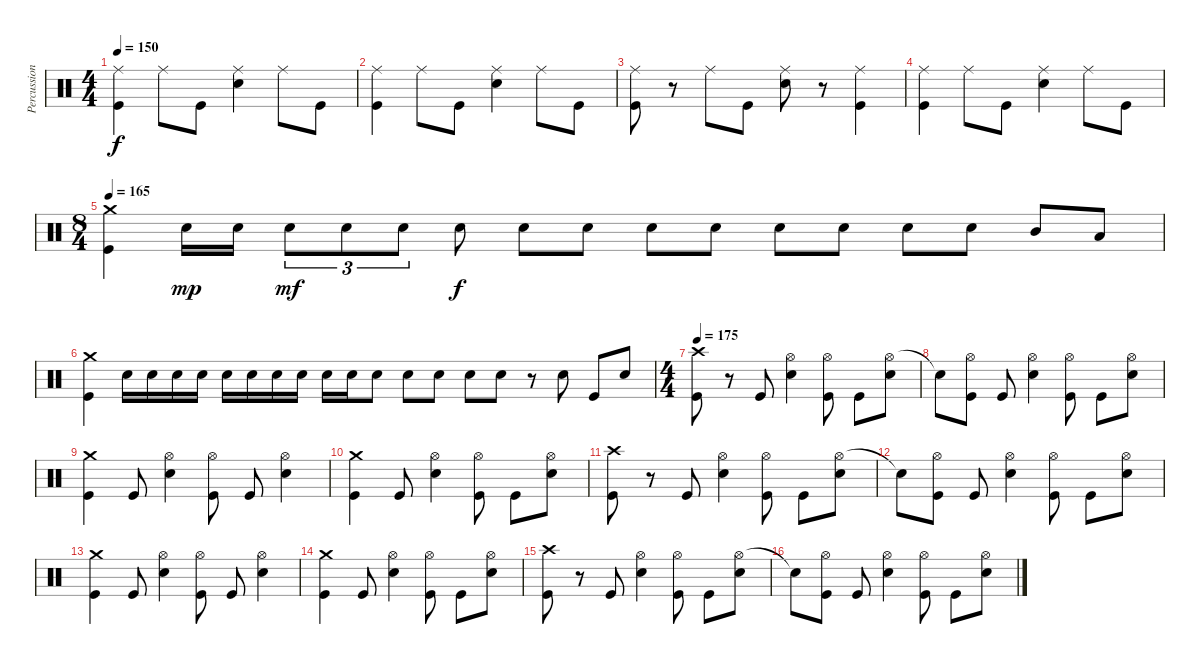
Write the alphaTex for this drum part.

\track ("Percussion" "Percussion") {instrument percussion}
\staff {score}
\articulation defaults
\ts (4 4)
\tempo 150
\clef neutral
\ks c
("Ride (middle)" "Kick (hit)").4{dy f} "Ride (middle)".8 "Kick (hit)".8 ("Ride (middle)" "Snare (hit) 2").4 "Ride (middle)".8 "Kick (hit)".8 |
("Ride (middle)" "Kick (hit)").4 "Ride (middle)".8 "Kick (hit)".8 ("Ride (middle)" "Snare (hit) 2").4 "Ride (middle)".8 "Kick (hit)".8 |
("Ride (middle)" "Kick (hit)").8 r.8 "Ride (middle)".8 "Kick (hit)".8 ("Ride (middle)" "Snare (hit) 2").8 r.8 ("Ride (middle)" "Kick (hit)").4 |
("Ride (middle)" "Kick (hit)").4 "Ride (middle)".8 "Kick (hit)".8 ("Ride (middle)" "Snare (hit) 2").4 "Ride (middle)".8 "Kick (hit)".8 |
\ts (8 4)
\tempo 165
("Crash medium (hit)" "Kick (hit)").4 "Snare (hit) 2".16{dy mp} "Snare (hit) 2".16 "Snare (hit) 2".8{tu (3 2) dy mf} "Snare (hit) 2".8{tu (3 2)} "Snare (hit) 2".8{tu (3 2)} "Snare (hit) 2".8{dy f} "Snare (hit) 2".8 "Snare (hit) 2".8 "Snare (hit) 2".8 "Snare (hit) 2".8 "Snare (hit) 2".8 "Snare (hit) 2".8 "Snare (hit) 2".8 "Snare (hit) 2".8 "Mid Tom (hit)".8 "Low Floor Tom (hit)".8 |
("Crash medium (hit)" "Kick (hit)").4 "Snare (hit) 2".16 "Snare (hit) 2".16 "Snare (hit) 2".16 "Snare (hit) 2".16 "Snare (hit) 2".16 "Snare (hit) 2".16 "Snare (hit) 2".16 "Snare (hit) 2".16 "Snare (hit) 2".16 "Snare (hit) 2".16 "Snare (hit) 2".8 "Snare (hit) 2".8 "Snare (hit) 2".8 "Snare (hit) 2".8 "Snare (hit) 2".8 r.8 "Snare (hit) 2".8 "Kick (hit)".8 "Snare (hit) 2".8 |
\ts (4 4)
\tempo 175
("Crash high (hit)" "Kick (hit)").8 r.8 "Kick (hit)".8 ("Hi-Hat (open)" "Snare (hit) 2").4 ("Hi-Hat (open)" "Kick (hit)").8 "Kick (hit)".8 ("Hi-Hat (open)" "Snare (hit) 2").8 |
"Snare (hit)"{t}.8 ("Hi-Hat (open)" "Kick (hit)").8 "Kick (hit)".8 ("Hi-Hat (open)" "Snare (hit) 2").4 ("Hi-Hat (open)" "Kick (hit)").8 "Kick (hit)".8 ("Hi-Hat (open)" "Snare (hit) 2").8 |
("Crash medium (hit)" "Kick (hit)").4 "Kick (hit)".8 ("Hi-Hat (open)" "Snare (hit) 2").4 ("Hi-Hat (open)" "Kick (hit)").8 "Kick (hit)".8 ("Hi-Hat (open)" "Snare (hit) 2").4 |
("Crash medium (hit)" "Kick (hit)").4 "Kick (hit)".8 ("Hi-Hat (open)" "Snare (hit) 2").4 ("Hi-Hat (open)" "Kick (hit)").8 "Kick (hit)".8 ("Hi-Hat (open)" "Snare (hit) 2").8 |
("Crash high (hit)" "Kick (hit)").8 r.8 "Kick (hit)".8 ("Hi-Hat (open)" "Snare (hit) 2").4 ("Hi-Hat (open)" "Kick (hit)").8 "Kick (hit)".8 ("Hi-Hat (open)" "Snare (hit) 2").8 |
"Snare (hit)"{t}.8 ("Hi-Hat (open)" "Kick (hit)").8 "Kick (hit)".8 ("Hi-Hat (open)" "Snare (hit) 2").4 ("Hi-Hat (open)" "Kick (hit)").8 "Kick (hit)".8 ("Hi-Hat (open)" "Snare (hit) 2").8 |
("Crash medium (hit)" "Kick (hit)").4 "Kick (hit)".8 ("Hi-Hat (open)" "Snare (hit) 2").4 ("Hi-Hat (open)" "Kick (hit)").8 "Kick (hit)".8 ("Hi-Hat (open)" "Snare (hit) 2").4 |
("Crash medium (hit)" "Kick (hit)").4 "Kick (hit)".8 ("Hi-Hat (open)" "Snare (hit) 2").4 ("Hi-Hat (open)" "Kick (hit)").8 "Kick (hit)".8 ("Hi-Hat (open)" "Snare (hit) 2").8 |
("Crash high (hit)" "Kick (hit)").8 r.8 "Kick (hit)".8 ("Hi-Hat (open)" "Snare (hit) 2").4 ("Hi-Hat (open)" "Kick (hit)").8 "Kick (hit)".8 ("Hi-Hat (open)" "Snare (hit) 2").8 |
"Snare (hit)"{t}.8 ("Hi-Hat (open)" "Kick (hit)").8 "Kick (hit)".8 ("Hi-Hat (open)" "Snare (hit) 2").4 ("Hi-Hat (open)" "Kick (hit)").8 "Kick (hit)".8 ("Hi-Hat (open)" "Snare (hit) 2").8
